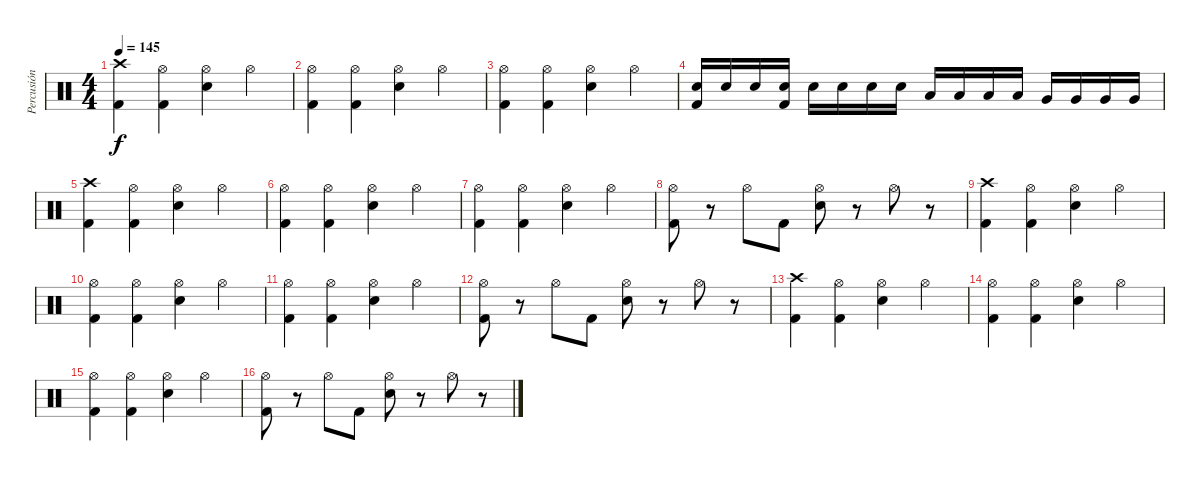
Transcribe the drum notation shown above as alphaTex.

\track ("Percusión" "Percusión") {instrument percussion}
\staff {score}
\articulation defaults
\ts (4 4)
\tempo 145
\clef neutral
\ks c
("Crash high (hit)" "Kick (hit) 2").4{dy f} ("Hi-Hat (open)" "Kick (hit) 2").4 ("Hi-Hat (open)" "Electric Snare (hit)").4 "Hi-Hat (open)".4 |
("Hi-Hat (open)" "Kick (hit) 2").4 ("Hi-Hat (open)" "Kick (hit) 2").4 ("Hi-Hat (open)" "Electric Snare (hit)").4 "Hi-Hat (open)".4 |
("Hi-Hat (open)" "Kick (hit) 2").4 ("Hi-Hat (open)" "Kick (hit) 2").4 ("Hi-Hat (open)" "Electric Snare (hit)").4 "Hi-Hat (open)".4 |
("Electric Snare (hit)" "Kick (hit) 2").16 "Electric Snare (hit)".16 "Electric Snare (hit)".16 ("Electric Snare (hit)" "Kick (hit) 2").16 "Electric Snare (hit)".16 "Electric Snare (hit)".16 "Electric Snare (hit)".16 "Electric Snare (hit)".16 "Low Tom (hit)".16 "Low Tom (hit)".16 "Low Tom (hit)".16 "Low Tom (hit)".16 "Very Low Tom (hit)".16 "Very Low Tom (hit)".16 "Very Low Tom (hit)".16 "Very Low Tom (hit)".16 |
("Crash high (hit)" "Kick (hit) 2").4 ("Hi-Hat (open)" "Kick (hit) 2").4 ("Hi-Hat (open)" "Electric Snare (hit)").4 "Hi-Hat (open)".4 |
("Hi-Hat (open)" "Kick (hit) 2").4 ("Hi-Hat (open)" "Kick (hit) 2").4 ("Hi-Hat (open)" "Electric Snare (hit)").4 "Hi-Hat (open)".4 |
("Hi-Hat (open)" "Kick (hit) 2").4 ("Hi-Hat (open)" "Kick (hit) 2").4 ("Hi-Hat (open)" "Electric Snare (hit)").4 "Hi-Hat (open)".4 |
("Hi-Hat (open)" "Kick (hit) 2").8 r.8 "Hi-Hat (open)".8 "Kick (hit) 2".8 ("Hi-Hat (open)" "Electric Snare (hit)").8 r.8 "Hi-Hat (open)".8 r.8 |
("Crash high (hit)" "Kick (hit) 2").4 ("Hi-Hat (open)" "Kick (hit) 2").4 ("Hi-Hat (open)" "Electric Snare (hit)").4 "Hi-Hat (open)".4 |
("Hi-Hat (open)" "Kick (hit) 2").4 ("Hi-Hat (open)" "Kick (hit) 2").4 ("Hi-Hat (open)" "Electric Snare (hit)").4 "Hi-Hat (open)".4 |
("Hi-Hat (open)" "Kick (hit) 2").4 ("Hi-Hat (open)" "Kick (hit) 2").4 ("Hi-Hat (open)" "Electric Snare (hit)").4 "Hi-Hat (open)".4 |
("Hi-Hat (open)" "Kick (hit) 2").8 r.8 "Hi-Hat (open)".8 "Kick (hit) 2".8 ("Hi-Hat (open)" "Electric Snare (hit)").8 r.8 "Hi-Hat (open)".8 r.8 |
("Crash high (hit)" "Kick (hit) 2").4 ("Hi-Hat (open)" "Kick (hit) 2").4 ("Hi-Hat (open)" "Electric Snare (hit)").4 "Hi-Hat (open)".4 |
("Hi-Hat (open)" "Kick (hit) 2").4 ("Hi-Hat (open)" "Kick (hit) 2").4 ("Hi-Hat (open)" "Electric Snare (hit)").4 "Hi-Hat (open)".4 |
("Hi-Hat (open)" "Kick (hit) 2").4 ("Hi-Hat (open)" "Kick (hit) 2").4 ("Hi-Hat (open)" "Electric Snare (hit)").4 "Hi-Hat (open)".4 |
("Hi-Hat (open)" "Kick (hit) 2").8 r.8 "Hi-Hat (open)".8 "Kick (hit) 2".8 ("Hi-Hat (open)" "Electric Snare (hit)").8 r.8 "Hi-Hat (open)".8 r.8
